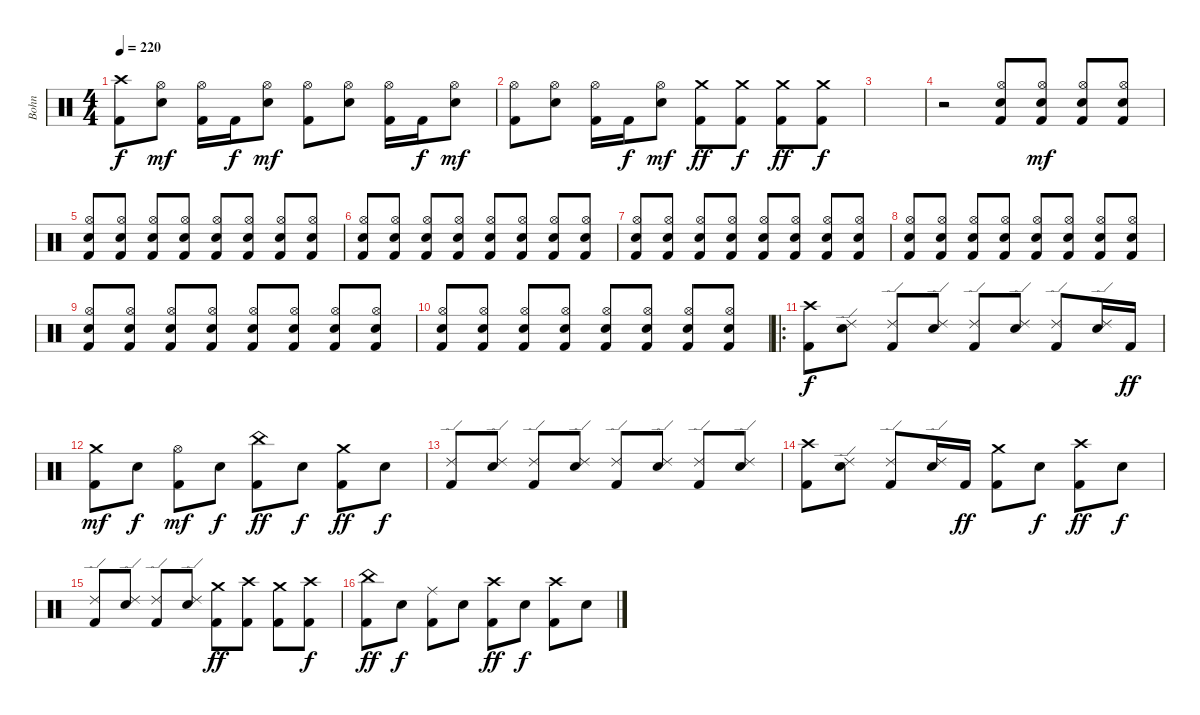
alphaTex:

\track ("Bohn" "Bohn") {instrument percussion}
\staff {score}
\articulation defaults
\ts (4 4)
\tempo 220
\clef neutral
\ks c
("Crash high (hit)" "Kick (hit) 2").8{dy f} ("Hi-Hat (open)" "Electric Snare (hit)").8{dy mf} ("Hi-Hat (open)" "Kick (hit) 2").16 "Kick (hit) 2".16{dy f} ("Hi-Hat (open)" "Electric Snare (hit)").8{dy mf} ("Hi-Hat (open)" "Kick (hit) 2").8 ("Hi-Hat (open)" "Electric Snare (hit)").8 ("Hi-Hat (open)" "Kick (hit) 2").16 "Kick (hit) 2".16{dy f} ("Hi-Hat (open)" "Electric Snare (hit)").8{dy mf} |
("Hi-Hat (open)" "Kick (hit) 2").8 ("Hi-Hat (open)" "Electric Snare (hit)").8 ("Hi-Hat (open)" "Kick (hit) 2").16 "Kick (hit) 2".16{dy f} ("Hi-Hat (open)" "Electric Snare (hit)").8{dy mf} ("Crash medium (hit)" "Kick (hit) 2").8{dy ff} ("Crash medium (hit)" "Kick (hit) 2").8{dy f} ("Crash medium (hit)" "Kick (hit) 2").8{dy ff} ("Crash medium (hit)" "Kick (hit) 2").8{dy f} |
|
r.2 ("Hi-Hat (open)" "Electric Snare (hit)" "Kick (hit) 2").8{volume 13} ("Hi-Hat (open)" "Electric Snare (hit)" "Kick (hit) 2").8{dy mf} ("Hi-Hat (open)" "Electric Snare (hit)" "Kick (hit) 2").8 ("Hi-Hat (open)" "Electric Snare (hit)" "Kick (hit) 2").8 |
("Hi-Hat (open)" "Electric Snare (hit)" "Kick (hit) 2").8 ("Hi-Hat (open)" "Electric Snare (hit)" "Kick (hit) 2").8 ("Hi-Hat (open)" "Electric Snare (hit)" "Kick (hit) 2").8 ("Hi-Hat (open)" "Electric Snare (hit)" "Kick (hit) 2").8 ("Hi-Hat (open)" "Electric Snare (hit)" "Kick (hit) 2").8 ("Hi-Hat (open)" "Electric Snare (hit)" "Kick (hit) 2").8 ("Hi-Hat (open)" "Electric Snare (hit)" "Kick (hit) 2").8 ("Hi-Hat (open)" "Electric Snare (hit)" "Kick (hit) 2").8 |
("Hi-Hat (open)" "Electric Snare (hit)" "Kick (hit) 2").8 ("Hi-Hat (open)" "Electric Snare (hit)" "Kick (hit) 2").8 ("Hi-Hat (open)" "Electric Snare (hit)" "Kick (hit) 2").8 ("Hi-Hat (open)" "Electric Snare (hit)" "Kick (hit) 2").8 ("Hi-Hat (open)" "Electric Snare (hit)" "Kick (hit) 2").8 ("Hi-Hat (open)" "Electric Snare (hit)" "Kick (hit) 2").8 ("Hi-Hat (open)" "Electric Snare (hit)" "Kick (hit) 2").8 ("Hi-Hat (open)" "Electric Snare (hit)" "Kick (hit) 2").8 |
("Hi-Hat (open)" "Electric Snare (hit)" "Kick (hit) 2").8 ("Hi-Hat (open)" "Electric Snare (hit)" "Kick (hit) 2").8 ("Hi-Hat (open)" "Electric Snare (hit)" "Kick (hit) 2").8 ("Hi-Hat (open)" "Electric Snare (hit)" "Kick (hit) 2").8 ("Hi-Hat (open)" "Electric Snare (hit)" "Kick (hit) 2").8 ("Hi-Hat (open)" "Electric Snare (hit)" "Kick (hit) 2").8 ("Hi-Hat (open)" "Electric Snare (hit)" "Kick (hit) 2").8 ("Hi-Hat (open)" "Electric Snare (hit)" "Kick (hit) 2").8 |
("Hi-Hat (open)" "Electric Snare (hit)" "Kick (hit) 2").8 ("Hi-Hat (open)" "Electric Snare (hit)" "Kick (hit) 2").8 ("Hi-Hat (open)" "Electric Snare (hit)" "Kick (hit) 2").8 ("Hi-Hat (open)" "Electric Snare (hit)" "Kick (hit) 2").8 ("Hi-Hat (open)" "Electric Snare (hit)" "Kick (hit) 2").8 ("Hi-Hat (open)" "Electric Snare (hit)" "Kick (hit) 2").8 ("Hi-Hat (open)" "Electric Snare (hit)" "Kick (hit) 2").8 ("Hi-Hat (open)" "Electric Snare (hit)" "Kick (hit) 2").8 |
("Hi-Hat (open)" "Electric Snare (hit)" "Kick (hit) 2").8 ("Hi-Hat (open)" "Electric Snare (hit)" "Kick (hit) 2").8 ("Hi-Hat (open)" "Electric Snare (hit)" "Kick (hit) 2").8 ("Hi-Hat (open)" "Electric Snare (hit)" "Kick (hit) 2").8 ("Hi-Hat (open)" "Electric Snare (hit)" "Kick (hit) 2").8 ("Hi-Hat (open)" "Electric Snare (hit)" "Kick (hit) 2").8 ("Hi-Hat (open)" "Electric Snare (hit)" "Kick (hit) 2").8 ("Hi-Hat (open)" "Electric Snare (hit)" "Kick (hit) 2").8 |
("Hi-Hat (open)" "Electric Snare (hit)" "Kick (hit) 2").8 ("Hi-Hat (open)" "Electric Snare (hit)" "Kick (hit) 2").8 ("Hi-Hat (open)" "Electric Snare (hit)" "Kick (hit) 2").8 ("Hi-Hat (open)" "Electric Snare (hit)" "Kick (hit) 2").8 ("Hi-Hat (open)" "Electric Snare (hit)" "Kick (hit) 2").8 ("Hi-Hat (open)" "Electric Snare (hit)" "Kick (hit) 2").8 ("Hi-Hat (open)" "Electric Snare (hit)" "Kick (hit) 2").8 ("Hi-Hat (open)" "Electric Snare (hit)" "Kick (hit) 2").8 |
\ro
("Crash high (hit)" "Kick (hit) 2").8{dy f} ("Ride (edge) 2" "Electric Snare (hit)").8 ("Ride (edge) 2" "Kick (hit) 2").8 ("Ride (edge) 2" "Electric Snare (hit)").8 ("Ride (edge) 2" "Kick (hit) 2").8 ("Ride (edge) 2" "Electric Snare (hit)").8 ("Ride (edge) 2" "Kick (hit) 2").8 ("Ride (edge) 2" "Electric Snare (hit)").16 "Kick (hit) 2".16{dy ff} |
("Crash medium (hit)" "Kick (hit) 2").8{dy mf} "Electric Snare (hit)".8{dy f} ("Hi-Hat (open)" "Kick (hit) 2").8{dy mf} "Electric Snare (hit)".8{dy f} ("China (hit)" "Kick (hit) 2").8{dy ff} "Electric Snare (hit)".8{dy f} ("Crash medium (hit)" "Kick (hit) 2").8{dy ff} "Electric Snare (hit)".8{dy f} |
("Ride (edge) 2" "Kick (hit) 2").8 ("Ride (edge) 2" "Electric Snare (hit)").8 ("Ride (edge) 2" "Kick (hit) 2").8 ("Ride (edge) 2" "Electric Snare (hit)").8 ("Ride (edge) 2" "Kick (hit) 2").8 ("Ride (edge) 2" "Electric Snare (hit)").8 ("Ride (edge) 2" "Kick (hit) 2").8 ("Ride (edge) 2" "Electric Snare (hit)").8 |
("Crash high (hit)" "Kick (hit) 2").8 ("Ride (edge) 2" "Electric Snare (hit)").8 ("Ride (edge) 2" "Kick (hit) 2").8 ("Ride (edge) 2" "Electric Snare (hit)").16 "Kick (hit) 2".16{dy ff} ("Crash medium (hit)" "Kick (hit) 2").8 "Electric Snare (hit)".8{dy f} ("Crash high (hit)" "Kick (hit) 2").8{dy ff} "Electric Snare (hit)".8{dy f} |
("Ride (edge) 2" "Kick (hit) 2").8 ("Ride (edge) 2" "Electric Snare (hit)").8 ("Ride (edge) 2" "Kick (hit) 2").8 ("Ride (edge) 2" "Electric Snare (hit)").8 ("Crash medium (hit)" "Kick (hit) 2").8{dy ff} ("Crash high (hit)" "Kick (hit) 2").8 ("Crash medium (hit)" "Kick (hit) 2").8 ("Crash high (hit)" "Kick (hit) 2").8{dy f} |
("China (hit)" "Kick (hit) 2").8{dy ff} "Electric Snare (hit)".8{dy f} ("Ride (middle)" "Kick (hit) 2").8 "Electric Snare (hit)".8 ("Crash high (hit)" "Kick (hit) 2").8{dy ff} "Electric Snare (hit)".8{dy f} ("Crash high (hit)" "Kick (hit) 2").8 "Electric Snare (hit)".8
